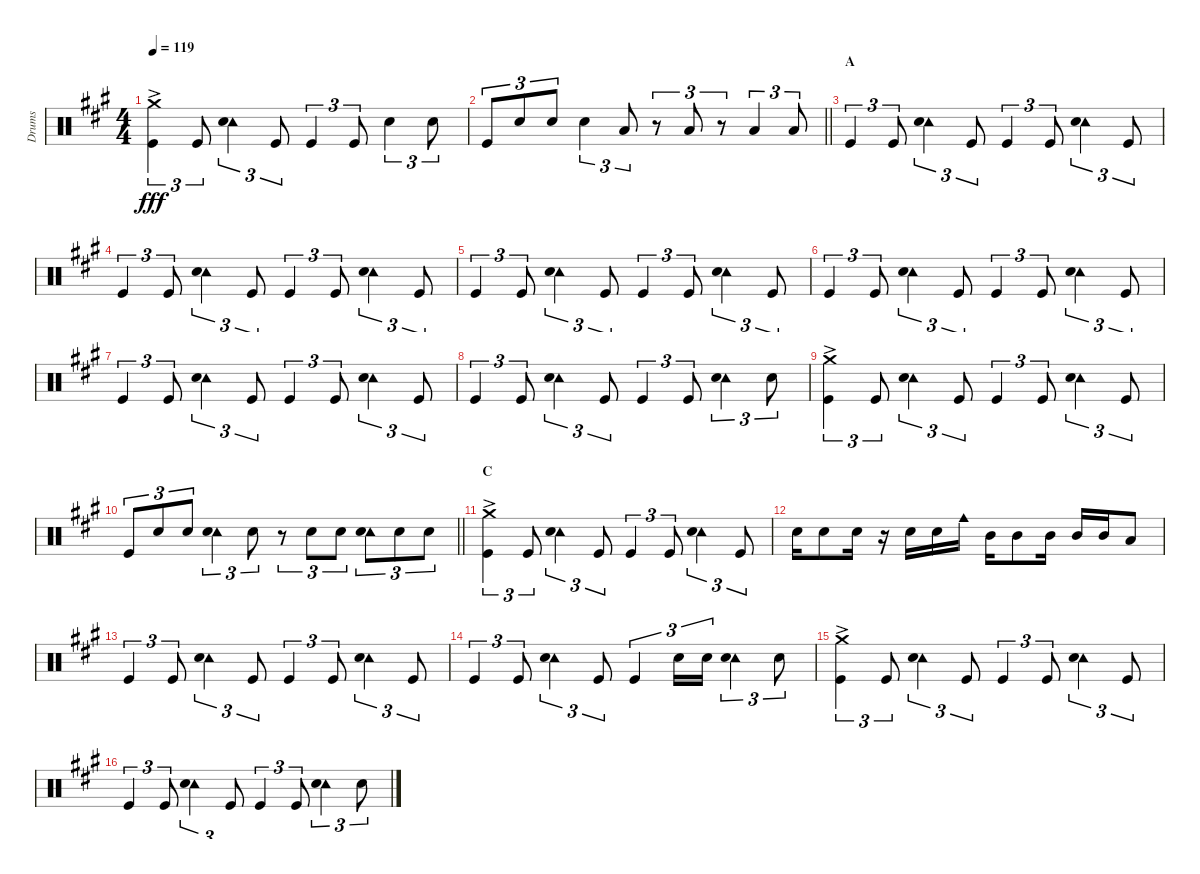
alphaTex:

\track ("Drums" "Drums") {instrument percussion}
\staff {score}
\articulation defaults
\ts (4 4)
\tempo 119
\clef neutral
\ks a
("Crash medium (hit)"{ac} "Kick (hit)").4{tu (3 2) dy fff} "Kick (hit)".8{tu (3 2)} ("Tambourine (hit)" "Snare (hit) 2").4{tu (3 2)} "Kick (hit)".8{tu (3 2)} "Kick (hit)".4{tu (3 2)} "Kick (hit)".8{tu (3 2)} "Snare (hit) 2".4{tu (3 2)} "Snare (hit) 2".8{tu (3 2)} |
\barLineRight lightlight "Kick (hit)".8{tu (3 2)} "Snare (hit) 2".8{tu (3 2)} "Snare (hit) 2".8{tu (3 2)} "Snare (hit) 2".4{tu (3 2)} "Low Tom (hit)".8{tu (3 2)}
r.8{tu (3 2)} "Low Tom (hit)".8{tu (3 2)} r.8{tu (3 2)} "Low Tom (hit)".4{tu (3 2)} "Low Tom (hit)".8{tu (3 2)} |
\section ("" "A")
"Kick (hit)".4{tu (3 2)} "Kick (hit)".8{tu (3 2)} ("Tambourine (hit)" "Snare (hit) 2").4{tu (3 2)} "Kick (hit)".8{tu (3 2)} "Kick (hit)".4{tu (3 2)} "Kick (hit)".8{tu (3 2)} ("Tambourine (hit)" "Snare (hit) 2").4{tu (3 2)} "Kick (hit)".8{tu (3 2)} |
"Kick (hit)".4{tu (3 2)} "Kick (hit)".8{tu (3 2)} ("Tambourine (hit)" "Snare (hit) 2").4{tu (3 2)} "Kick (hit)".8{tu (3 2)} "Kick (hit)".4{tu (3 2)} "Kick (hit)".8{tu (3 2)} ("Tambourine (hit)" "Snare (hit) 2").4{tu (3 2)} "Kick (hit)".8{tu (3 2)} |
"Kick (hit)".4{tu (3 2)} "Kick (hit)".8{tu (3 2)} ("Tambourine (hit)" "Snare (hit) 2").4{tu (3 2)} "Kick (hit)".8{tu (3 2)} "Kick (hit)".4{tu (3 2)} "Kick (hit)".8{tu (3 2)} ("Tambourine (hit)" "Snare (hit) 2").4{tu (3 2)} "Kick (hit)".8{tu (3 2)} |
"Kick (hit)".4{tu (3 2)} "Kick (hit)".8{tu (3 2)} ("Tambourine (hit)" "Snare (hit) 2").4{tu (3 2)} "Kick (hit)".8{tu (3 2)} "Kick (hit)".4{tu (3 2)} "Kick (hit)".8{tu (3 2)} ("Tambourine (hit)" "Snare (hit) 2").4{tu (3 2)} "Kick (hit)".8{tu (3 2)} |
"Kick (hit)".4{tu (3 2)} "Kick (hit)".8{tu (3 2)} ("Tambourine (hit)" "Snare (hit) 2").4{tu (3 2)} "Kick (hit)".8{tu (3 2)} "Kick (hit)".4{tu (3 2)} "Kick (hit)".8{tu (3 2)} ("Tambourine (hit)" "Snare (hit) 2").4{tu (3 2)} "Kick (hit)".8{tu (3 2)} |
"Kick (hit)".4{tu (3 2)} "Kick (hit)".8{tu (3 2)} ("Tambourine (hit)" "Snare (hit) 2").4{tu (3 2)} "Kick (hit)".8{tu (3 2)} "Kick (hit)".4{tu (3 2)} "Kick (hit)".8{tu (3 2)} ("Tambourine (hit)" "Snare (hit) 2").4{tu (3 2)} "Snare (hit) 2".8{tu (3 2)} |
("Crash medium (hit)"{ac} "Kick (hit)").4{tu (3 2)} "Kick (hit)".8{tu (3 2)} ("Tambourine (hit)" "Snare (hit) 2").4{tu (3 2)} "Kick (hit)".8{tu (3 2)} "Kick (hit)".4{tu (3 2)} "Kick (hit)".8{tu (3 2)} ("Tambourine (hit)" "Snare (hit) 2").4{tu (3 2)} "Kick (hit)".8{tu (3 2)} |
\barLineRight lightlight "Kick (hit)".8{tu (3 2)} "Snare (hit) 2".8{tu (3 2)} "Snare (hit) 2".8{tu (3 2)}
("Tambourine (hit)" "Snare (hit) 2").4{tu (3 2)} "Snare (hit) 2".8{tu (3 2)} r.8{tu (3 2)} "Snare (hit) 2".8{tu (3 2)} "Snare (hit) 2".8{tu (3 2)} ("Tambourine (hit)" "Snare (hit) 2").8{tu (3 2)} "Snare (hit) 2".8{tu (3 2)} "Snare (hit) 2".8{tu (3 2)} |
\section ("" "C")
("Crash medium (hit)"{ac} "Kick (hit)").4{tu (3 2)} "Kick (hit)".8{tu (3 2)} ("Tambourine (hit)" "Snare (hit) 2").4{tu (3 2)} "Kick (hit)".8{tu (3 2)} "Kick (hit)".4{tu (3 2)} "Kick (hit)".8{tu (3 2)} ("Tambourine (hit)" "Snare (hit) 2").4{tu (3 2)} "Kick (hit)".8{tu (3 2)} |
"Snare (hit) 2".16 "Snare (hit) 2".8 "Snare (hit) 2".16 r.16 "Snare (hit) 2".16 "Snare (hit) 2".16 "Cowbell medium (hit)".16 "Mid Tom (hit)".16 "Mid Tom (hit)".8 "Mid Tom (hit)".16 "Mid Tom (hit)".16 "Mid Tom (hit)".16 "Low Tom (hit)".8 |
"Kick (hit)".4{tu (3 2)} "Kick (hit)".8{tu (3 2)} ("Tambourine (hit)" "Snare (hit) 2").4{tu (3 2)} "Kick (hit)".8{tu (3 2)} "Kick (hit)".4{tu (3 2)} "Kick (hit)".8{tu (3 2)} ("Tambourine (hit)" "Snare (hit) 2").4{tu (3 2)} "Kick (hit)".8{tu (3 2)} |
"Kick (hit)".4{tu (3 2)} "Kick (hit)".8{tu (3 2)} ("Tambourine (hit)" "Snare (hit) 2").4{tu (3 2)} "Kick (hit)".8{tu (3 2)} "Kick (hit)".4{tu (3 2)} "Snare (hit) 2".16{tu (3 2)} "Snare (hit) 2".16{tu (3 2)} ("Tambourine (hit)" "Snare (hit) 2").4{tu (3 2)} "Snare (hit) 2".8{tu (3 2)} |
("Crash medium (hit)"{ac} "Kick (hit)").4{tu (3 2)} "Kick (hit)".8{tu (3 2)} ("Tambourine (hit)" "Snare (hit) 2").4{tu (3 2)} "Kick (hit)".8{tu (3 2)} "Kick (hit)".4{tu (3 2)} "Kick (hit)".8{tu (3 2)} ("Tambourine (hit)" "Snare (hit) 2").4{tu (3 2)} "Kick (hit)".8{tu (3 2)} |
"Kick (hit)".4{tu (3 2)} "Kick (hit)".8{tu (3 2)} ("Tambourine (hit)" "Snare (hit) 2").4{tu (3 2)} "Kick (hit)".8{tu (3 2)} "Kick (hit)".4{tu (3 2)} "Kick (hit)".8{tu (3 2)} ("Tambourine (hit)" "Snare (hit) 2").4{tu (3 2)} "Snare (hit) 2".8{tu (3 2)}
